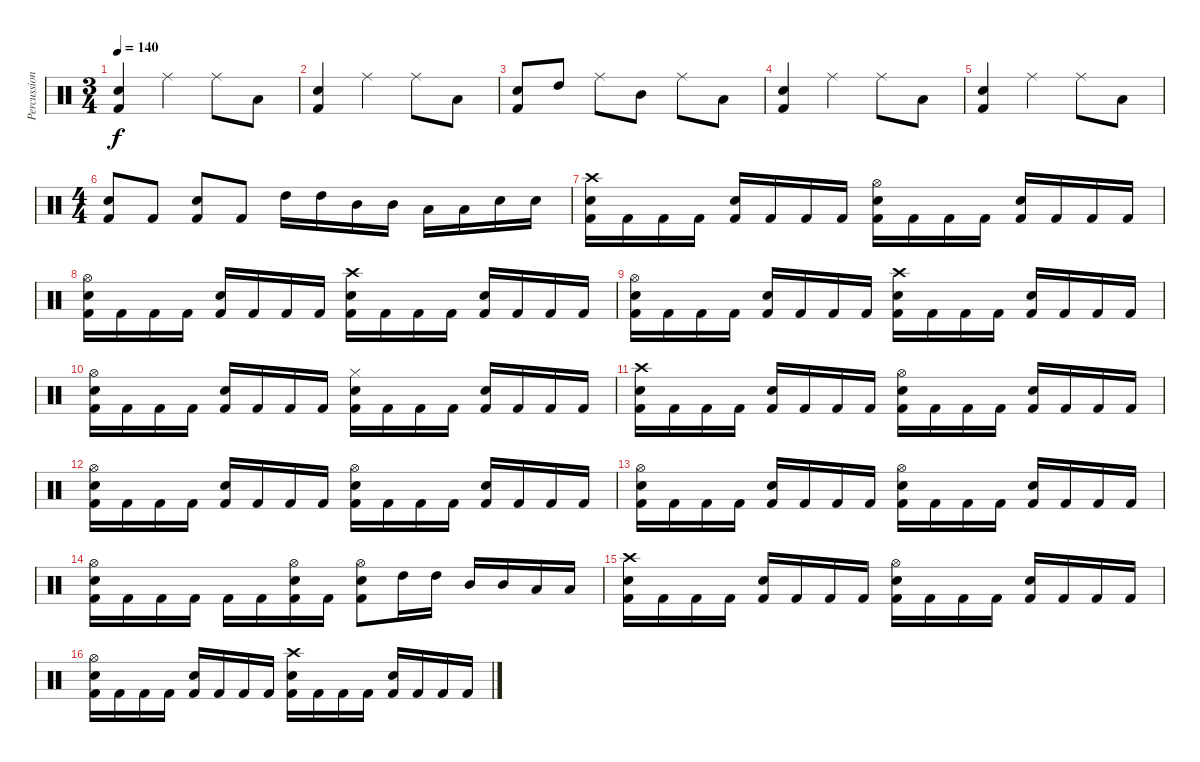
\track ("Percussions" "Percussion") {instrument percussion}
\staff {score}
\articulation defaults
\ts (3 4)
\tempo 140
\clef neutral
\ks c
("Snare (hit) 2" "Kick (hit) 2").4{dy f} "Ride (middle)".4 "Ride (middle)".8 "Low Tom (hit)".8 |
("Snare (hit) 2" "Kick (hit) 2").4 "Ride (middle)".4 "Ride (middle)".8 "Low Tom (hit)".8 |
("Snare (hit) 2" "Kick (hit) 2").8 "High Tom (hit)".8 "Ride (middle)".8 "Mid Tom (hit)".8 "Ride (middle)".8 "Low Tom (hit)".8 |
("Snare (hit) 2" "Kick (hit) 2").4 "Ride (middle)".4 "Ride (middle)".8 "Low Tom (hit)".8 |
("Snare (hit) 2" "Kick (hit) 2").4 "Ride (middle)".4 "Ride (middle)".8 "Low Tom (hit)".8 |
\ts (4 4)
("Snare (hit) 2" "Kick (hit) 2").8 "Kick (hit) 2".8 ("Snare (hit) 2" "Kick (hit) 2").8 "Kick (hit) 2".8 "High Tom (hit)".16 "High Tom (hit)".16 "Mid Tom (hit)".16 "Mid Tom (hit)".16 "Low Tom (hit)".16 "Low Tom (hit)".16 "Snare (hit) 2".16 "Snare (hit) 2".16 |
("Crash high (hit)" "Snare (hit) 2" "Kick (hit) 2").16 "Kick (hit) 2".16 "Kick (hit) 2".16 "Kick (hit) 2".16 ("Snare (hit) 2" "Kick (hit) 2").16 "Kick (hit) 2".16 "Kick (hit) 2".16 "Kick (hit) 2".16 ("Hi-Hat (open)" "Snare (hit) 2" "Kick (hit) 2").16 "Kick (hit) 2".16 "Kick (hit) 2".16 "Kick (hit) 2".16 ("Snare (hit) 2" "Kick (hit) 2").16 "Kick (hit) 2".16 "Kick (hit) 2".16 "Kick (hit) 2".16 |
("Hi-Hat (open)" "Snare (hit) 2" "Kick (hit) 2").16 "Kick (hit) 2".16 "Kick (hit) 2".16 "Kick (hit) 2".16 ("Snare (hit) 2" "Kick (hit) 2").16 "Kick (hit) 2".16 "Kick (hit) 2".16 "Kick (hit) 2".16 ("Crash high (hit)" "Snare (hit) 2" "Kick (hit) 2").16 "Kick (hit) 2".16 "Kick (hit) 2".16 "Kick (hit) 2".16 ("Snare (hit) 2" "Kick (hit) 2").16 "Kick (hit) 2".16 "Kick (hit) 2".16 "Kick (hit) 2".16 |
("Hi-Hat (open)" "Snare (hit) 2" "Kick (hit) 2").16 "Kick (hit) 2".16 "Kick (hit) 2".16 "Kick (hit) 2".16 ("Snare (hit) 2" "Kick (hit) 2").16 "Kick (hit) 2".16 "Kick (hit) 2".16 "Kick (hit) 2".16 ("Crash high (hit)" "Snare (hit) 2" "Kick (hit) 2").16 "Kick (hit) 2".16 "Kick (hit) 2".16 "Kick (hit) 2".16 ("Snare (hit) 2" "Kick (hit) 2").16 "Kick (hit) 2".16 "Kick (hit) 2".16 "Kick (hit) 2".16 |
("Hi-Hat (open)" "Snare (hit) 2" "Kick (hit) 2").16 "Kick (hit) 2".16 "Kick (hit) 2".16 "Kick (hit) 2".16 ("Snare (hit) 2" "Kick (hit) 2").16 "Kick (hit) 2".16 "Kick (hit) 2".16 "Kick (hit) 2".16 ("Hi-Hat (closed)" "Snare (hit) 2" "Kick (hit) 2").16 "Kick (hit) 2".16 "Kick (hit) 2".16 "Kick (hit) 2".16 ("Snare (hit) 2" "Kick (hit) 2").16 "Kick (hit) 2".16 "Kick (hit) 2".16 "Kick (hit) 2".16 |
("Crash high (hit)" "Snare (hit) 2" "Kick (hit) 2").16 "Kick (hit) 2".16 "Kick (hit) 2".16 "Kick (hit) 2".16 ("Snare (hit) 2" "Kick (hit) 2").16 "Kick (hit) 2".16 "Kick (hit) 2".16 "Kick (hit) 2".16 ("Hi-Hat (open)" "Snare (hit) 2" "Kick (hit) 2").16 "Kick (hit) 2".16 "Kick (hit) 2".16 "Kick (hit) 2".16 ("Snare (hit) 2" "Kick (hit) 2").16 "Kick (hit) 2".16 "Kick (hit) 2".16 "Kick (hit) 2".16 |
("Hi-Hat (open)" "Snare (hit) 2" "Kick (hit) 2").16 "Kick (hit) 2".16 "Kick (hit) 2".16 "Kick (hit) 2".16 ("Snare (hit) 2" "Kick (hit) 2").16 "Kick (hit) 2".16 "Kick (hit) 2".16 "Kick (hit) 2".16 ("Hi-Hat (open)" "Snare (hit) 2" "Kick (hit) 2").16 "Kick (hit) 2".16 "Kick (hit) 2".16 "Kick (hit) 2".16 ("Snare (hit) 2" "Kick (hit) 2").16 "Kick (hit) 2".16 "Kick (hit) 2".16 "Kick (hit) 2".16 |
("Hi-Hat (open)" "Snare (hit) 2" "Kick (hit) 2").16 "Kick (hit) 2".16 "Kick (hit) 2".16 "Kick (hit) 2".16 ("Snare (hit) 2" "Kick (hit) 2").16 "Kick (hit) 2".16 "Kick (hit) 2".16 "Kick (hit) 2".16 ("Hi-Hat (open)" "Snare (hit) 2" "Kick (hit) 2").16 "Kick (hit) 2".16 "Kick (hit) 2".16 "Kick (hit) 2".16 ("Snare (hit) 2" "Kick (hit) 2").16 "Kick (hit) 2".16 "Kick (hit) 2".16 "Kick (hit) 2".16 |
("Hi-Hat (open)" "Snare (hit) 2" "Kick (hit) 2").16 "Kick (hit) 2".16 "Kick (hit) 2".16 "Kick (hit) 2".16 "Kick (hit) 2".16 "Kick (hit) 2".16 ("Hi-Hat (open)" "Snare (hit) 2" "Kick (hit) 2").16 "Kick (hit) 2".16 ("Hi-Hat (open)" "Snare (hit) 2" "Kick (hit) 2").8 "High Tom (hit)".16 "High Tom (hit)".16 "Mid Tom (hit)".16 "Mid Tom (hit)".16 "Low Tom (hit)".16 "Low Tom (hit)".16 |
("Crash high (hit)" "Snare (hit) 2" "Kick (hit) 2").16 "Kick (hit) 2".16 "Kick (hit) 2".16 "Kick (hit) 2".16 ("Snare (hit) 2" "Kick (hit) 2").16 "Kick (hit) 2".16 "Kick (hit) 2".16 "Kick (hit) 2".16 ("Hi-Hat (open)" "Snare (hit) 2" "Kick (hit) 2").16 "Kick (hit) 2".16 "Kick (hit) 2".16 "Kick (hit) 2".16 ("Snare (hit) 2" "Kick (hit) 2").16 "Kick (hit) 2".16 "Kick (hit) 2".16 "Kick (hit) 2".16 |
("Hi-Hat (open)" "Snare (hit) 2" "Kick (hit) 2").16 "Kick (hit) 2".16 "Kick (hit) 2".16 "Kick (hit) 2".16 ("Snare (hit) 2" "Kick (hit) 2").16 "Kick (hit) 2".16 "Kick (hit) 2".16 "Kick (hit) 2".16 ("Crash high (hit)" "Snare (hit) 2" "Kick (hit) 2").16 "Kick (hit) 2".16 "Kick (hit) 2".16 "Kick (hit) 2".16 ("Snare (hit) 2" "Kick (hit) 2").16 "Kick (hit) 2".16 "Kick (hit) 2".16 "Kick (hit) 2".16
